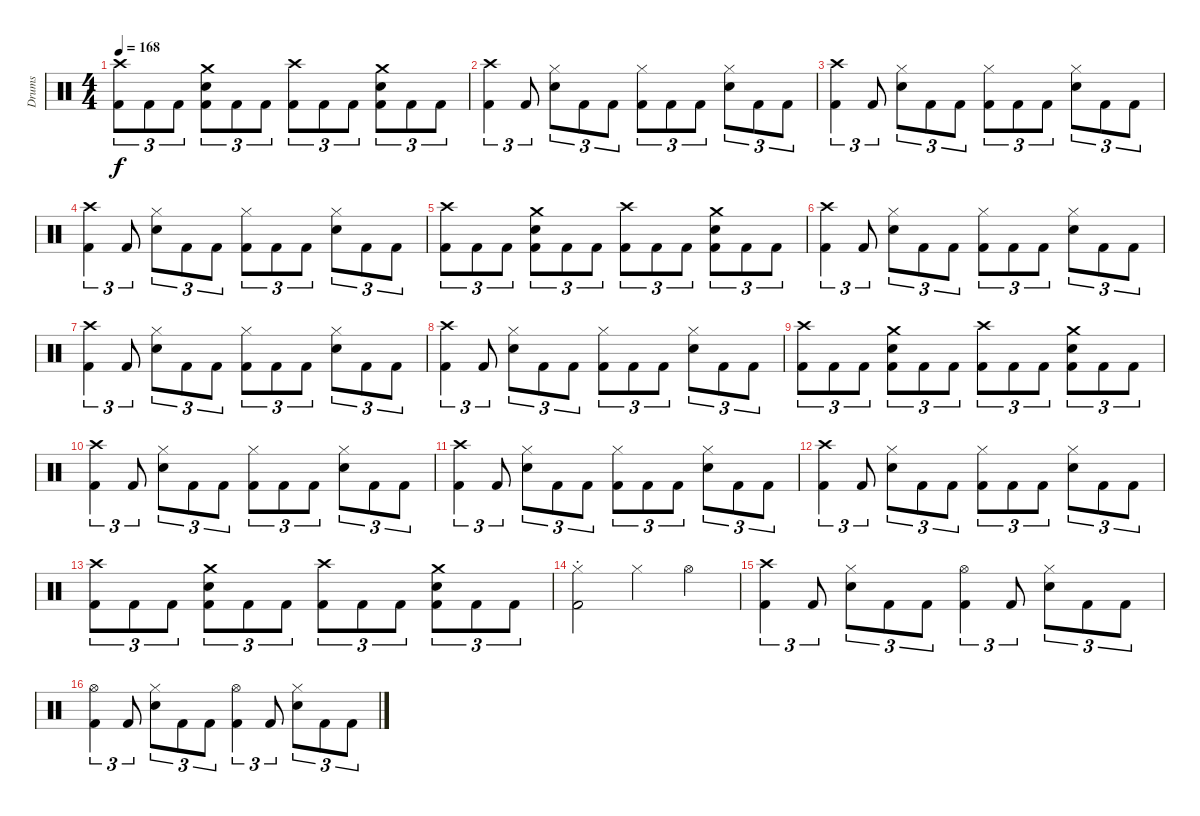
\track ("Drums" "Drums") {instrument percussion}
\staff {score}
\articulation defaults
\ts (4 4)
\tempo 168
\clef neutral
\ks c
("Kick (hit) 2" "Crash high (hit)").8{tu (3 2) dy f} "Kick (hit) 2".8{tu (3 2)} "Kick (hit) 2".8{tu (3 2)} ("Electric Snare (hit)" "Crash medium (hit)" "Kick (hit) 2").8{tu (3 2)} "Kick (hit) 2".8{tu (3 2)} "Kick (hit) 2".8{tu (3 2)} ("Kick (hit) 2" "Crash high (hit)").8{tu (3 2)} "Kick (hit) 2".8{tu (3 2)} "Kick (hit) 2".8{tu (3 2)} ("Electric Snare (hit)" "Crash medium (hit)" "Kick (hit) 2").8{tu (3 2)} "Kick (hit) 2".8{tu (3 2)} "Kick (hit) 2".8{tu (3 2)} |
("Kick (hit) 2" "Crash high (hit)").4{tu (3 2)} "Kick (hit) 2".8{tu (3 2)} ("Hi-Hat (closed)" "Electric Snare (hit)").8{tu (3 2)} "Kick (hit) 2".8{tu (3 2)} "Kick (hit) 2".8{tu (3 2)} ("Kick (hit) 2" "Hi-Hat (closed)").8{tu (3 2)} "Kick (hit) 2".8{tu (3 2)} "Kick (hit) 2".8{tu (3 2)} ("Hi-Hat (closed)" "Electric Snare (hit)").8{tu (3 2)} "Kick (hit) 2".8{tu (3 2)} "Kick (hit) 2".8{tu (3 2)} |
("Kick (hit) 2" "Crash high (hit)").4{tu (3 2)} "Kick (hit) 2".8{tu (3 2)} ("Hi-Hat (closed)" "Electric Snare (hit)").8{tu (3 2)} "Kick (hit) 2".8{tu (3 2)} "Kick (hit) 2".8{tu (3 2)} ("Kick (hit) 2" "Hi-Hat (closed)").8{tu (3 2)} "Kick (hit) 2".8{tu (3 2)} "Kick (hit) 2".8{tu (3 2)} ("Hi-Hat (closed)" "Electric Snare (hit)").8{tu (3 2)} "Kick (hit) 2".8{tu (3 2)} "Kick (hit) 2".8{tu (3 2)} |
("Kick (hit) 2" "Crash high (hit)").4{tu (3 2)} "Kick (hit) 2".8{tu (3 2)} ("Hi-Hat (closed)" "Electric Snare (hit)").8{tu (3 2)} "Kick (hit) 2".8{tu (3 2)} "Kick (hit) 2".8{tu (3 2)} ("Kick (hit) 2" "Hi-Hat (closed)").8{tu (3 2)} "Kick (hit) 2".8{tu (3 2)} "Kick (hit) 2".8{tu (3 2)} ("Hi-Hat (closed)" "Electric Snare (hit)").8{tu (3 2)} "Kick (hit) 2".8{tu (3 2)} "Kick (hit) 2".8{tu (3 2)} |
("Kick (hit) 2" "Crash high (hit)").8{tu (3 2)} "Kick (hit) 2".8{tu (3 2)} "Kick (hit) 2".8{tu (3 2)} ("Electric Snare (hit)" "Crash medium (hit)" "Kick (hit) 2").8{tu (3 2)} "Kick (hit) 2".8{tu (3 2)} "Kick (hit) 2".8{tu (3 2)} ("Kick (hit) 2" "Crash high (hit)").8{tu (3 2)} "Kick (hit) 2".8{tu (3 2)} "Kick (hit) 2".8{tu (3 2)} ("Electric Snare (hit)" "Crash medium (hit)" "Kick (hit) 2").8{tu (3 2)} "Kick (hit) 2".8{tu (3 2)} "Kick (hit) 2".8{tu (3 2)} |
("Kick (hit) 2" "Crash high (hit)").4{tu (3 2)} "Kick (hit) 2".8{tu (3 2)} ("Hi-Hat (closed)" "Electric Snare (hit)").8{tu (3 2)} "Kick (hit) 2".8{tu (3 2)} "Kick (hit) 2".8{tu (3 2)} ("Kick (hit) 2" "Hi-Hat (closed)").8{tu (3 2)} "Kick (hit) 2".8{tu (3 2)} "Kick (hit) 2".8{tu (3 2)} ("Hi-Hat (closed)" "Electric Snare (hit)").8{tu (3 2)} "Kick (hit) 2".8{tu (3 2)} "Kick (hit) 2".8{tu (3 2)} |
("Kick (hit) 2" "Crash high (hit)").4{tu (3 2)} "Kick (hit) 2".8{tu (3 2)} ("Hi-Hat (closed)" "Electric Snare (hit)").8{tu (3 2)} "Kick (hit) 2".8{tu (3 2)} "Kick (hit) 2".8{tu (3 2)} ("Kick (hit) 2" "Hi-Hat (closed)").8{tu (3 2)} "Kick (hit) 2".8{tu (3 2)} "Kick (hit) 2".8{tu (3 2)} ("Hi-Hat (closed)" "Electric Snare (hit)").8{tu (3 2)} "Kick (hit) 2".8{tu (3 2)} "Kick (hit) 2".8{tu (3 2)} |
("Kick (hit) 2" "Crash high (hit)").4{tu (3 2)} "Kick (hit) 2".8{tu (3 2)} ("Hi-Hat (closed)" "Electric Snare (hit)").8{tu (3 2)} "Kick (hit) 2".8{tu (3 2)} "Kick (hit) 2".8{tu (3 2)} ("Kick (hit) 2" "Hi-Hat (closed)").8{tu (3 2)} "Kick (hit) 2".8{tu (3 2)} "Kick (hit) 2".8{tu (3 2)} ("Hi-Hat (closed)" "Electric Snare (hit)").8{tu (3 2)} "Kick (hit) 2".8{tu (3 2)} "Kick (hit) 2".8{tu (3 2)} |
("Kick (hit) 2" "Crash high (hit)").8{tu (3 2)} "Kick (hit) 2".8{tu (3 2)} "Kick (hit) 2".8{tu (3 2)} ("Electric Snare (hit)" "Crash medium (hit)" "Kick (hit) 2").8{tu (3 2)} "Kick (hit) 2".8{tu (3 2)} "Kick (hit) 2".8{tu (3 2)} ("Kick (hit) 2" "Crash high (hit)").8{tu (3 2)} "Kick (hit) 2".8{tu (3 2)} "Kick (hit) 2".8{tu (3 2)} ("Electric Snare (hit)" "Crash medium (hit)" "Kick (hit) 2").8{tu (3 2)} "Kick (hit) 2".8{tu (3 2)} "Kick (hit) 2".8{tu (3 2)} |
("Kick (hit) 2" "Crash high (hit)").4{tu (3 2)} "Kick (hit) 2".8{tu (3 2)} ("Hi-Hat (closed)" "Electric Snare (hit)").8{tu (3 2)} "Kick (hit) 2".8{tu (3 2)} "Kick (hit) 2".8{tu (3 2)} ("Kick (hit) 2" "Hi-Hat (closed)").8{tu (3 2)} "Kick (hit) 2".8{tu (3 2)} "Kick (hit) 2".8{tu (3 2)} ("Hi-Hat (closed)" "Electric Snare (hit)").8{tu (3 2)} "Kick (hit) 2".8{tu (3 2)} "Kick (hit) 2".8{tu (3 2)} |
("Kick (hit) 2" "Crash high (hit)").4{tu (3 2)} "Kick (hit) 2".8{tu (3 2)} ("Hi-Hat (closed)" "Electric Snare (hit)").8{tu (3 2)} "Kick (hit) 2".8{tu (3 2)} "Kick (hit) 2".8{tu (3 2)} ("Kick (hit) 2" "Hi-Hat (closed)").8{tu (3 2)} "Kick (hit) 2".8{tu (3 2)} "Kick (hit) 2".8{tu (3 2)} ("Hi-Hat (closed)" "Electric Snare (hit)").8{tu (3 2)} "Kick (hit) 2".8{tu (3 2)} "Kick (hit) 2".8{tu (3 2)} |
("Kick (hit) 2" "Crash high (hit)").4{tu (3 2)} "Kick (hit) 2".8{tu (3 2)} ("Hi-Hat (closed)" "Electric Snare (hit)").8{tu (3 2)} "Kick (hit) 2".8{tu (3 2)} "Kick (hit) 2".8{tu (3 2)} ("Kick (hit) 2" "Hi-Hat (closed)").8{tu (3 2)} "Kick (hit) 2".8{tu (3 2)} "Kick (hit) 2".8{tu (3 2)} ("Hi-Hat (closed)" "Electric Snare (hit)").8{tu (3 2)} "Kick (hit) 2".8{tu (3 2)} "Kick (hit) 2".8{tu (3 2)} |
("Kick (hit) 2" "Crash high (hit)").8{tu (3 2)} "Kick (hit) 2".8{tu (3 2)} "Kick (hit) 2".8{tu (3 2)} ("Electric Snare (hit)" "Crash medium (hit)" "Kick (hit) 2").8{tu (3 2)} "Kick (hit) 2".8{tu (3 2)} "Kick (hit) 2".8{tu (3 2)} ("Kick (hit) 2" "Crash high (hit)").8{tu (3 2)} "Kick (hit) 2".8{tu (3 2)} "Kick (hit) 2".8{tu (3 2)} ("Electric Snare (hit)" "Crash medium (hit)" "Kick (hit) 2").8{tu (3 2)} "Kick (hit) 2".8{tu (3 2)} "Kick (hit) 2".8{tu (3 2)} |
("Kick (hit) 2" "Hi-Hat (closed)"{st}).2 "Hi-Hat (closed)".4{balance 4} "Hi-Hat (open)".4{balance 12} |
("Kick (hit) 2" "Crash high (hit)").4{tu (3 2)} "Kick (hit) 2".8{tu (3 2)} ("Hi-Hat (closed)" "Electric Snare (hit)").8{tu (3 2)} "Kick (hit) 2".8{tu (3 2)} "Kick (hit) 2".8{tu (3 2)} ("Kick (hit) 2" "Hi-Hat (open)").4{tu (3 2)} "Kick (hit) 2".8{tu (3 2)} ("Hi-Hat (closed)" "Electric Snare (hit)").8{tu (3 2)} "Kick (hit) 2".8{tu (3 2)} "Kick (hit) 2".8{tu (3 2)} |
("Kick (hit) 2" "Hi-Hat (open)").4{tu (3 2)} "Kick (hit) 2".8{tu (3 2)} ("Hi-Hat (closed)" "Electric Snare (hit)").8{tu (3 2)} "Kick (hit) 2".8{tu (3 2)} "Kick (hit) 2".8{tu (3 2)} ("Kick (hit) 2" "Hi-Hat (open)").4{tu (3 2)} "Kick (hit) 2".8{tu (3 2)} ("Hi-Hat (closed)" "Electric Snare (hit)").8{tu (3 2)} "Kick (hit) 2".8{tu (3 2)} "Kick (hit) 2".8{tu (3 2)}
